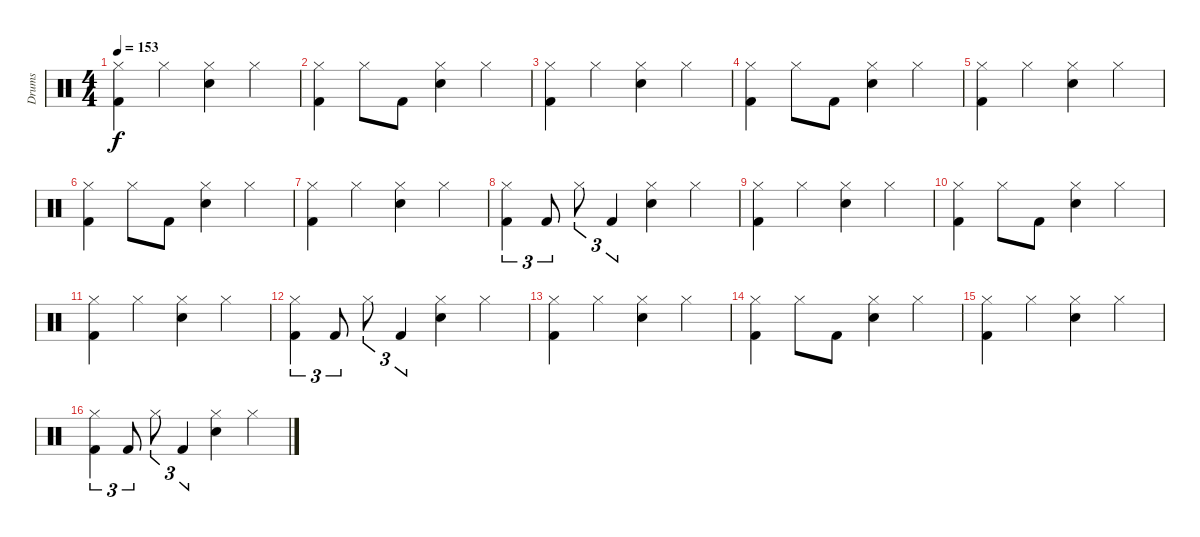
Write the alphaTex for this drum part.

\track ("Drums" "Drums") {instrument percussion}
\staff {score}
\articulation defaults
\ts (4 4)
\tempo 153
\clef neutral
\ks c
("Hi-Hat (closed)" "Kick (hit) 2").4{dy f} "Hi-Hat (closed)".4 ("Hi-Hat (closed)" "Electric Snare (hit)").4 "Hi-Hat (closed)".4 |
("Hi-Hat (closed)" "Kick (hit) 2").4 "Hi-Hat (closed)".8 "Kick (hit) 2".8 ("Hi-Hat (closed)" "Electric Snare (hit)").4 "Hi-Hat (closed)".4 |
("Hi-Hat (closed)" "Kick (hit) 2").4 "Hi-Hat (closed)".4 ("Hi-Hat (closed)" "Electric Snare (hit)").4 "Hi-Hat (closed)".4 |
("Hi-Hat (closed)" "Kick (hit) 2").4 "Hi-Hat (closed)".8 "Kick (hit) 2".8 ("Hi-Hat (closed)" "Electric Snare (hit)").4 "Hi-Hat (closed)".4 |
("Hi-Hat (closed)" "Kick (hit) 2").4 "Hi-Hat (closed)".4 ("Hi-Hat (closed)" "Electric Snare (hit)").4 "Hi-Hat (closed)".4 |
("Hi-Hat (closed)" "Kick (hit) 2").4 "Hi-Hat (closed)".8 "Kick (hit) 2".8 ("Hi-Hat (closed)" "Electric Snare (hit)").4 "Hi-Hat (closed)".4 |
("Hi-Hat (closed)" "Kick (hit) 2").4 "Hi-Hat (closed)".4 ("Hi-Hat (closed)" "Electric Snare (hit)").4 "Hi-Hat (closed)".4 |
("Hi-Hat (closed)" "Kick (hit) 2").4{tu (3 2)} "Kick (hit) 2".8{tu (3 2)} "Hi-Hat (closed)".8{tu (3 2)} "Kick (hit) 2".4{tu (3 2)} ("Hi-Hat (closed)" "Electric Snare (hit)").4 "Hi-Hat (closed)".4 |
("Hi-Hat (closed)" "Kick (hit) 2").4{volume 8} "Hi-Hat (closed)".4 ("Hi-Hat (closed)" "Electric Snare (hit)").4 "Hi-Hat (closed)".4 |
("Hi-Hat (closed)" "Kick (hit) 2").4 "Hi-Hat (closed)".8 "Kick (hit) 2".8 ("Hi-Hat (closed)" "Electric Snare (hit)").4 "Hi-Hat (closed)".4 |
("Hi-Hat (closed)" "Kick (hit) 2").4 "Hi-Hat (closed)".4 ("Hi-Hat (closed)" "Electric Snare (hit)").4 "Hi-Hat (closed)".4 |
("Hi-Hat (closed)" "Kick (hit) 2").4{tu (3 2)} "Kick (hit) 2".8{tu (3 2)} "Hi-Hat (closed)".8{tu (3 2)} "Kick (hit) 2".4{tu (3 2)} ("Hi-Hat (closed)" "Electric Snare (hit)").4 "Hi-Hat (closed)".4 |
("Hi-Hat (closed)" "Kick (hit) 2").4{volume 0} "Hi-Hat (closed)".4 ("Hi-Hat (closed)" "Electric Snare (hit)").4 "Hi-Hat (closed)".4 |
("Hi-Hat (closed)" "Kick (hit) 2").4 "Hi-Hat (closed)".8 "Kick (hit) 2".8 ("Hi-Hat (closed)" "Electric Snare (hit)").4 "Hi-Hat (closed)".4 |
("Hi-Hat (closed)" "Kick (hit) 2").4 "Hi-Hat (closed)".4 ("Hi-Hat (closed)" "Electric Snare (hit)").4 "Hi-Hat (closed)".4 |
("Hi-Hat (closed)" "Kick (hit) 2").4{tu (3 2)} "Kick (hit) 2".8{tu (3 2)} "Hi-Hat (closed)".8{tu (3 2)} "Kick (hit) 2".4{tu (3 2)} ("Hi-Hat (closed)" "Electric Snare (hit)").4 "Hi-Hat (closed)".4
